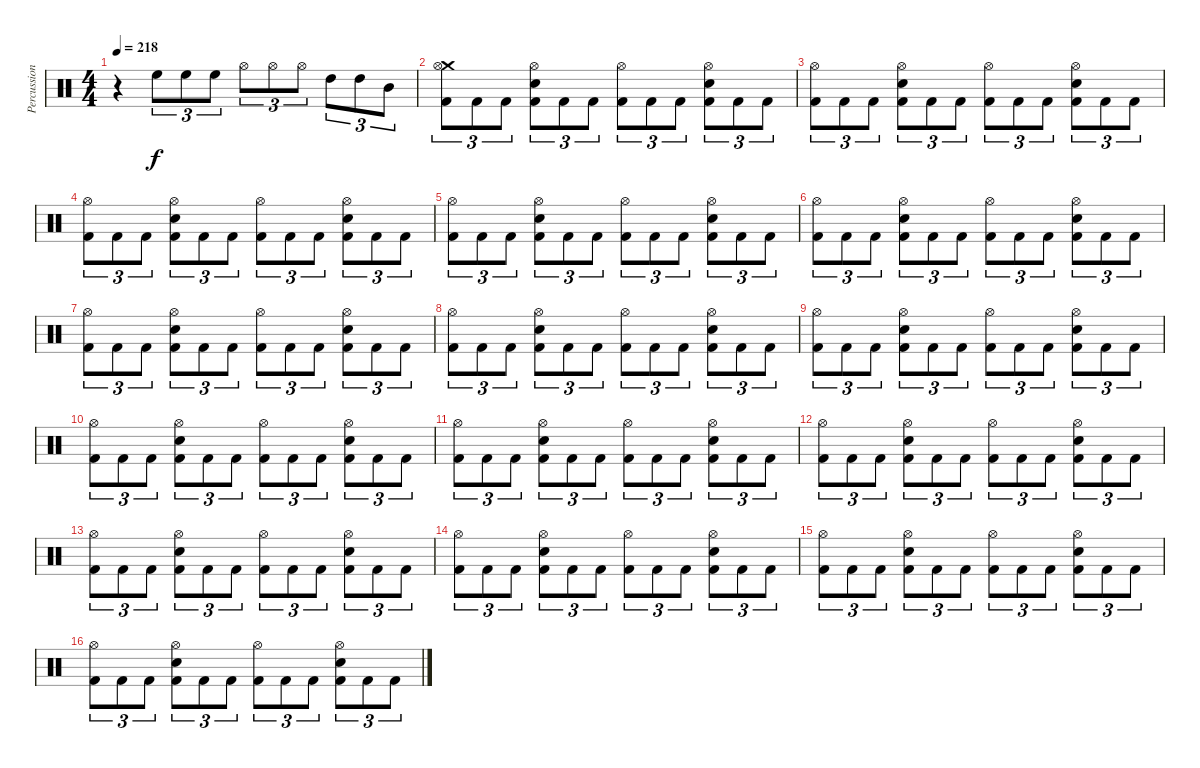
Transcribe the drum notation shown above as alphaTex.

\track ("Percussion" "Percussion") {instrument percussion}
\staff {score}
\articulation defaults
\ts (4 4)
\tempo 218
\clef neutral
\ks c
r.4{dy f} "High Floor Tom (hit)".8{tu (3 2)} "High Floor Tom (hit)".8{tu (3 2)} "High Floor Tom (hit)".8{tu (3 2)} "Hi-Hat (open)".8{tu (3 2)} "Hi-Hat (open)".8{tu (3 2)} "Hi-Hat (open)".8{tu (3 2)} "High Tom (hit)".8{tu (3 2)} "High Tom (hit)".8{tu (3 2)} "Mid Tom (hit)".8{tu (3 2)} |
("Crash medium (hit)" "Hi-Hat (open)" "Kick (hit) 2").8{tu (3 2)} "Kick (hit) 2".8{tu (3 2)} "Kick (hit) 2".8{tu (3 2)} ("Hi-Hat (open)" "Electric Snare (hit)" "Kick (hit) 2").8{tu (3 2)} "Kick (hit) 2".8{tu (3 2)} "Kick (hit) 2".8{tu (3 2)} ("Hi-Hat (open)" "Kick (hit) 2").8{tu (3 2)} "Kick (hit) 2".8{tu (3 2)} "Kick (hit) 2".8{tu (3 2)} ("Hi-Hat (open)" "Electric Snare (hit)" "Kick (hit) 2").8{tu (3 2)} "Kick (hit) 2".8{tu (3 2)} "Kick (hit) 2".8{tu (3 2)} |
("Hi-Hat (open)" "Kick (hit) 2").8{tu (3 2)} "Kick (hit) 2".8{tu (3 2)} "Kick (hit) 2".8{tu (3 2)} ("Hi-Hat (open)" "Electric Snare (hit)" "Kick (hit) 2").8{tu (3 2)} "Kick (hit) 2".8{tu (3 2)} "Kick (hit) 2".8{tu (3 2)} ("Hi-Hat (open)" "Kick (hit) 2").8{tu (3 2)} "Kick (hit) 2".8{tu (3 2)} "Kick (hit) 2".8{tu (3 2)} ("Hi-Hat (open)" "Electric Snare (hit)" "Kick (hit) 2").8{tu (3 2)} "Kick (hit) 2".8{tu (3 2)} "Kick (hit) 2".8{tu (3 2)} |
("Hi-Hat (open)" "Kick (hit) 2").8{tu (3 2)} "Kick (hit) 2".8{tu (3 2)} "Kick (hit) 2".8{tu (3 2)} ("Hi-Hat (open)" "Electric Snare (hit)" "Kick (hit) 2").8{tu (3 2)} "Kick (hit) 2".8{tu (3 2)} "Kick (hit) 2".8{tu (3 2)} ("Hi-Hat (open)" "Kick (hit) 2").8{tu (3 2)} "Kick (hit) 2".8{tu (3 2)} "Kick (hit) 2".8{tu (3 2)} ("Hi-Hat (open)" "Electric Snare (hit)" "Kick (hit) 2").8{tu (3 2)} "Kick (hit) 2".8{tu (3 2)} "Kick (hit) 2".8{tu (3 2)} |
("Hi-Hat (open)" "Kick (hit) 2").8{tu (3 2)} "Kick (hit) 2".8{tu (3 2)} "Kick (hit) 2".8{tu (3 2)} ("Hi-Hat (open)" "Electric Snare (hit)" "Kick (hit) 2").8{tu (3 2)} "Kick (hit) 2".8{tu (3 2)} "Kick (hit) 2".8{tu (3 2)} ("Hi-Hat (open)" "Kick (hit) 2").8{tu (3 2)} "Kick (hit) 2".8{tu (3 2)} "Kick (hit) 2".8{tu (3 2)} ("Hi-Hat (open)" "Electric Snare (hit)" "Kick (hit) 2").8{tu (3 2)} "Kick (hit) 2".8{tu (3 2)} "Kick (hit) 2".8{tu (3 2)} |
("Hi-Hat (open)" "Kick (hit) 2").8{tu (3 2)} "Kick (hit) 2".8{tu (3 2)} "Kick (hit) 2".8{tu (3 2)} ("Hi-Hat (open)" "Electric Snare (hit)" "Kick (hit) 2").8{tu (3 2)} "Kick (hit) 2".8{tu (3 2)} "Kick (hit) 2".8{tu (3 2)} ("Hi-Hat (open)" "Kick (hit) 2").8{tu (3 2)} "Kick (hit) 2".8{tu (3 2)} "Kick (hit) 2".8{tu (3 2)} ("Hi-Hat (open)" "Electric Snare (hit)" "Kick (hit) 2").8{tu (3 2)} "Kick (hit) 2".8{tu (3 2)} "Kick (hit) 2".8{tu (3 2)} |
("Hi-Hat (open)" "Kick (hit) 2").8{tu (3 2)} "Kick (hit) 2".8{tu (3 2)} "Kick (hit) 2".8{tu (3 2)} ("Hi-Hat (open)" "Electric Snare (hit)" "Kick (hit) 2").8{tu (3 2)} "Kick (hit) 2".8{tu (3 2)} "Kick (hit) 2".8{tu (3 2)} ("Hi-Hat (open)" "Kick (hit) 2").8{tu (3 2)} "Kick (hit) 2".8{tu (3 2)} "Kick (hit) 2".8{tu (3 2)} ("Hi-Hat (open)" "Electric Snare (hit)" "Kick (hit) 2").8{tu (3 2)} "Kick (hit) 2".8{tu (3 2)} "Kick (hit) 2".8{tu (3 2)} |
("Hi-Hat (open)" "Kick (hit) 2").8{tu (3 2)} "Kick (hit) 2".8{tu (3 2)} "Kick (hit) 2".8{tu (3 2)} ("Hi-Hat (open)" "Electric Snare (hit)" "Kick (hit) 2").8{tu (3 2)} "Kick (hit) 2".8{tu (3 2)} "Kick (hit) 2".8{tu (3 2)} ("Hi-Hat (open)" "Kick (hit) 2").8{tu (3 2)} "Kick (hit) 2".8{tu (3 2)} "Kick (hit) 2".8{tu (3 2)} ("Hi-Hat (open)" "Electric Snare (hit)" "Kick (hit) 2").8{tu (3 2)} "Kick (hit) 2".8{tu (3 2)} "Kick (hit) 2".8{tu (3 2)} |
("Hi-Hat (open)" "Kick (hit) 2").8{tu (3 2)} "Kick (hit) 2".8{tu (3 2)} "Kick (hit) 2".8{tu (3 2)} ("Hi-Hat (open)" "Electric Snare (hit)" "Kick (hit) 2").8{tu (3 2)} "Kick (hit) 2".8{tu (3 2)} "Kick (hit) 2".8{tu (3 2)} ("Hi-Hat (open)" "Kick (hit) 2").8{tu (3 2)} "Kick (hit) 2".8{tu (3 2)} "Kick (hit) 2".8{tu (3 2)} ("Hi-Hat (open)" "Electric Snare (hit)" "Kick (hit) 2").8{tu (3 2)} "Kick (hit) 2".8{tu (3 2)} "Kick (hit) 2".8{tu (3 2)} |
("Hi-Hat (open)" "Kick (hit) 2").8{tu (3 2)} "Kick (hit) 2".8{tu (3 2)} "Kick (hit) 2".8{tu (3 2)} ("Hi-Hat (open)" "Electric Snare (hit)" "Kick (hit) 2").8{tu (3 2)} "Kick (hit) 2".8{tu (3 2)} "Kick (hit) 2".8{tu (3 2)} ("Hi-Hat (open)" "Kick (hit) 2").8{tu (3 2)} "Kick (hit) 2".8{tu (3 2)} "Kick (hit) 2".8{tu (3 2)} ("Hi-Hat (open)" "Electric Snare (hit)" "Kick (hit) 2").8{tu (3 2)} "Kick (hit) 2".8{tu (3 2)} "Kick (hit) 2".8{tu (3 2)} |
("Hi-Hat (open)" "Kick (hit) 2").8{tu (3 2)} "Kick (hit) 2".8{tu (3 2)} "Kick (hit) 2".8{tu (3 2)} ("Hi-Hat (open)" "Electric Snare (hit)" "Kick (hit) 2").8{tu (3 2)} "Kick (hit) 2".8{tu (3 2)} "Kick (hit) 2".8{tu (3 2)} ("Hi-Hat (open)" "Kick (hit) 2").8{tu (3 2)} "Kick (hit) 2".8{tu (3 2)} "Kick (hit) 2".8{tu (3 2)} ("Hi-Hat (open)" "Electric Snare (hit)" "Kick (hit) 2").8{tu (3 2)} "Kick (hit) 2".8{tu (3 2)} "Kick (hit) 2".8{tu (3 2)} |
("Hi-Hat (open)" "Kick (hit) 2").8{tu (3 2)} "Kick (hit) 2".8{tu (3 2)} "Kick (hit) 2".8{tu (3 2)} ("Hi-Hat (open)" "Electric Snare (hit)" "Kick (hit) 2").8{tu (3 2)} "Kick (hit) 2".8{tu (3 2)} "Kick (hit) 2".8{tu (3 2)} ("Hi-Hat (open)" "Kick (hit) 2").8{tu (3 2)} "Kick (hit) 2".8{tu (3 2)} "Kick (hit) 2".8{tu (3 2)} ("Hi-Hat (open)" "Electric Snare (hit)" "Kick (hit) 2").8{tu (3 2)} "Kick (hit) 2".8{tu (3 2)} "Kick (hit) 2".8{tu (3 2)} |
("Hi-Hat (open)" "Kick (hit) 2").8{tu (3 2)} "Kick (hit) 2".8{tu (3 2)} "Kick (hit) 2".8{tu (3 2)} ("Hi-Hat (open)" "Electric Snare (hit)" "Kick (hit) 2").8{tu (3 2)} "Kick (hit) 2".8{tu (3 2)} "Kick (hit) 2".8{tu (3 2)} ("Hi-Hat (open)" "Kick (hit) 2").8{tu (3 2)} "Kick (hit) 2".8{tu (3 2)} "Kick (hit) 2".8{tu (3 2)} ("Hi-Hat (open)" "Electric Snare (hit)" "Kick (hit) 2").8{tu (3 2)} "Kick (hit) 2".8{tu (3 2)} "Kick (hit) 2".8{tu (3 2)} |
("Hi-Hat (open)" "Kick (hit) 2").8{tu (3 2)} "Kick (hit) 2".8{tu (3 2)} "Kick (hit) 2".8{tu (3 2)} ("Hi-Hat (open)" "Electric Snare (hit)" "Kick (hit) 2").8{tu (3 2)} "Kick (hit) 2".8{tu (3 2)} "Kick (hit) 2".8{tu (3 2)} ("Hi-Hat (open)" "Kick (hit) 2").8{tu (3 2)} "Kick (hit) 2".8{tu (3 2)} "Kick (hit) 2".8{tu (3 2)} ("Hi-Hat (open)" "Electric Snare (hit)" "Kick (hit) 2").8{tu (3 2)} "Kick (hit) 2".8{tu (3 2)} "Kick (hit) 2".8{tu (3 2)} |
("Hi-Hat (open)" "Kick (hit) 2").8{tu (3 2)} "Kick (hit) 2".8{tu (3 2)} "Kick (hit) 2".8{tu (3 2)} ("Hi-Hat (open)" "Electric Snare (hit)" "Kick (hit) 2").8{tu (3 2)} "Kick (hit) 2".8{tu (3 2)} "Kick (hit) 2".8{tu (3 2)} ("Hi-Hat (open)" "Kick (hit) 2").8{tu (3 2)} "Kick (hit) 2".8{tu (3 2)} "Kick (hit) 2".8{tu (3 2)} ("Hi-Hat (open)" "Electric Snare (hit)" "Kick (hit) 2").8{tu (3 2)} "Kick (hit) 2".8{tu (3 2)} "Kick (hit) 2".8{tu (3 2)} |
("Hi-Hat (open)" "Kick (hit) 2").8{tu (3 2)} "Kick (hit) 2".8{tu (3 2)} "Kick (hit) 2".8{tu (3 2)} ("Hi-Hat (open)" "Electric Snare (hit)" "Kick (hit) 2").8{tu (3 2)} "Kick (hit) 2".8{tu (3 2)} "Kick (hit) 2".8{tu (3 2)} ("Hi-Hat (open)" "Kick (hit) 2").8{tu (3 2)} "Kick (hit) 2".8{tu (3 2)} "Kick (hit) 2".8{tu (3 2)} ("Hi-Hat (open)" "Electric Snare (hit)" "Kick (hit) 2").8{tu (3 2)} "Kick (hit) 2".8{tu (3 2)} "Kick (hit) 2".8{tu (3 2)}
